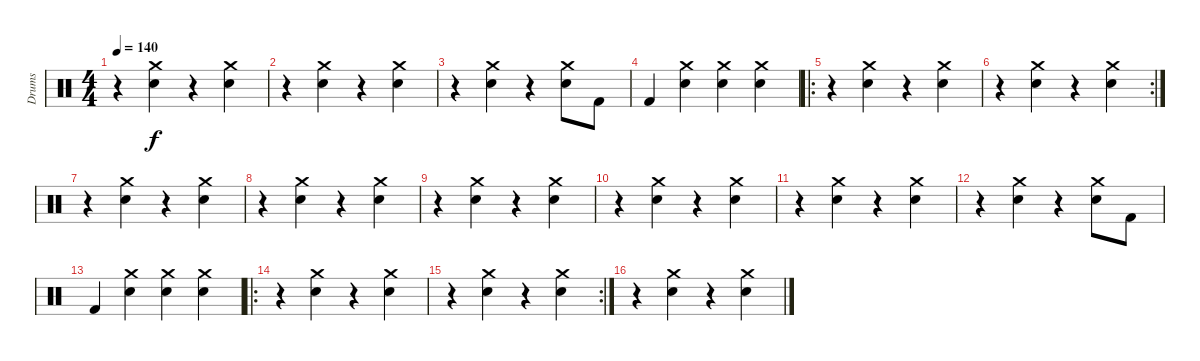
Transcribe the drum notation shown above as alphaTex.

\track ("Drums" "Drums") {instrument percussion}
\staff {score}
\articulation defaults
\ts (4 4)
\tempo 140
\clef neutral
\ks c
r.4{dy f} ("Snare (hit) 2" "Crash medium (hit)").4 r.4 ("Snare (hit) 2" "Crash medium (hit)").4 |
r.4 ("Snare (hit) 2" "Crash medium (hit)").4 r.4 ("Snare (hit) 2" "Crash medium (hit)").4 |
r.4 ("Snare (hit) 2" "Crash medium (hit)").4 r.4 ("Snare (hit) 2" "Crash medium (hit)").8 "Kick (hit) 2".8 |
"Kick (hit) 2".4 ("Snare (hit) 2" "Crash medium (hit)").4 ("Snare (hit) 2" "Crash medium (hit)").4 ("Snare (hit) 2" "Crash medium (hit)").4 |
\ro
r.4 ("Snare (hit) 2" "Crash medium (hit)").4 r.4 ("Snare (hit) 2" "Crash medium (hit)").4 |
\rc 2
r.4 ("Snare (hit) 2" "Crash medium (hit)").4 r.4 ("Snare (hit) 2" "Crash medium (hit)").4 |
r.4 ("Snare (hit) 2" "Crash medium (hit)").4 r.4 ("Snare (hit) 2" "Crash medium (hit)").4 |
r.4 ("Snare (hit) 2" "Crash medium (hit)").4 r.4 ("Snare (hit) 2" "Crash medium (hit)").4 |
r.4 ("Snare (hit) 2" "Crash medium (hit)").4 r.4 ("Snare (hit) 2" "Crash medium (hit)").4 |
r.4 ("Snare (hit) 2" "Crash medium (hit)").4 r.4 ("Snare (hit) 2" "Crash medium (hit)").4 |
r.4 ("Snare (hit) 2" "Crash medium (hit)").4 r.4 ("Snare (hit) 2" "Crash medium (hit)").4 |
r.4 ("Snare (hit) 2" "Crash medium (hit)").4 r.4 ("Snare (hit) 2" "Crash medium (hit)").8 "Kick (hit) 2".8 |
"Kick (hit) 2".4 ("Snare (hit) 2" "Crash medium (hit)").4 ("Snare (hit) 2" "Crash medium (hit)").4 ("Snare (hit) 2" "Crash medium (hit)").4 |
\ro
r.4 ("Snare (hit) 2" "Crash medium (hit)").4 r.4 ("Snare (hit) 2" "Crash medium (hit)").4 |
\rc 2
r.4 ("Snare (hit) 2" "Crash medium (hit)").4 r.4 ("Snare (hit) 2" "Crash medium (hit)").4 |
r.4 ("Snare (hit) 2" "Crash medium (hit)").4 r.4 ("Snare (hit) 2" "Crash medium (hit)").4
